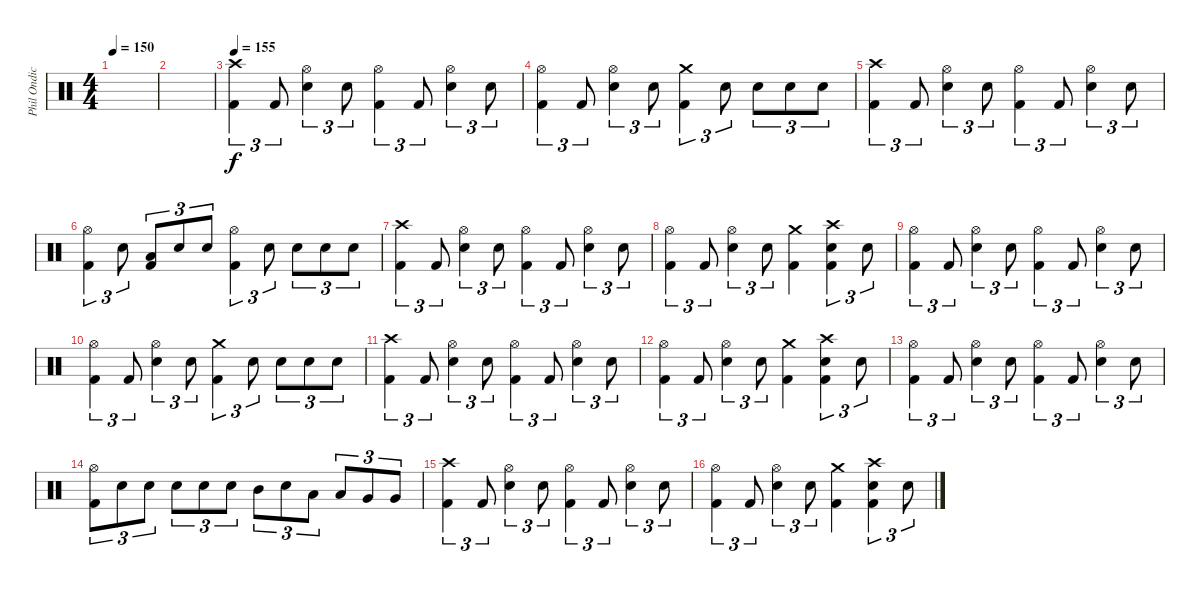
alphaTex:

\track ("Phil Ondich Drums" "Phil Ondic") {instrument percussion}
\staff {score}
\articulation defaults
\ts (4 4)
\tempo 150
\clef neutral
\ks c
|
|
\tempo 155
("Crash high (hit)" "Kick (hit) 2").4{tu (3 2)} "Kick (hit) 2".8{tu (3 2)} ("Hi-Hat (open)" "Snare (hit) 2").4{tu (3 2)} "Snare (hit) 2".8{tu (3 2)} ("Hi-Hat (open)" "Kick (hit) 2").4{tu (3 2)} "Kick (hit) 2".8{tu (3 2)} ("Hi-Hat (open)" "Snare (hit) 2").4{tu (3 2)} "Snare (hit) 2".8{tu (3 2)} |
("Hi-Hat (open)" "Kick (hit) 2").4{tu (3 2)} "Kick (hit) 2".8{tu (3 2)} ("Hi-Hat (open)" "Snare (hit) 2").4{tu (3 2)} "Snare (hit) 2".8{tu (3 2)} ("Crash medium (hit)" "Kick (hit) 2").4{tu (3 2)} "Snare (hit) 2".8{tu (3 2)} "Snare (hit) 2".8{tu (3 2)} "Snare (hit) 2".8{tu (3 2)} "Snare (hit) 2".8{tu (3 2)} |
("Crash high (hit)" "Kick (hit) 2").4{tu (3 2)} "Kick (hit) 2".8{tu (3 2)} ("Hi-Hat (open)" "Snare (hit) 2").4{tu (3 2)} "Snare (hit) 2".8{tu (3 2)} ("Hi-Hat (open)" "Kick (hit) 2").4{tu (3 2)} "Kick (hit) 2".8{tu (3 2)} ("Hi-Hat (open)" "Snare (hit) 2").4{tu (3 2)} "Snare (hit) 2".8{tu (3 2)} |
("Hi-Hat (open)" "Kick (hit) 2").4{tu (3 2)} "Snare (hit) 2".8{tu (3 2)} ("Low Tom (hit)" "Kick (hit) 2").8{tu (3 2)} "Snare (hit) 2".8{tu (3 2)} "Snare (hit) 2".8{tu (3 2)} ("Hi-Hat (open)" "Kick (hit) 2").4{tu (3 2)} "Snare (hit) 2".8{tu (3 2)} "Snare (hit) 2".8{tu (3 2)} "Snare (hit) 2".8{tu (3 2)} "Snare (hit) 2".8{tu (3 2)} |
("Crash high (hit)" "Kick (hit) 2").4{tu (3 2)} "Kick (hit) 2".8{tu (3 2)} ("Hi-Hat (open)" "Snare (hit) 2").4{tu (3 2)} "Snare (hit) 2".8{tu (3 2)} ("Hi-Hat (open)" "Kick (hit) 2").4{tu (3 2)} "Kick (hit) 2".8{tu (3 2)} ("Hi-Hat (open)" "Snare (hit) 2").4{tu (3 2)} "Snare (hit) 2".8{tu (3 2)} |
("Hi-Hat (open)" "Kick (hit) 2").4{tu (3 2)} "Kick (hit) 2".8{tu (3 2)} ("Hi-Hat (open)" "Snare (hit) 2").4{tu (3 2)} "Snare (hit) 2".8{tu (3 2)} ("Crash medium (hit)" "Kick (hit) 2").4 ("Crash high (hit)" "Snare (hit) 2" "Kick (hit) 2").4{tu (3 2)} "Snare (hit) 2".8{tu (3 2)} |
("Hi-Hat (open)" "Kick (hit) 2").4{tu (3 2)} "Kick (hit) 2".8{tu (3 2)} ("Hi-Hat (open)" "Snare (hit) 2").4{tu (3 2)} "Snare (hit) 2".8{tu (3 2)} ("Hi-Hat (open)" "Kick (hit) 2").4{tu (3 2)} "Kick (hit) 2".8{tu (3 2)} ("Hi-Hat (open)" "Snare (hit) 2").4{tu (3 2)} "Snare (hit) 2".8{tu (3 2)} |
("Hi-Hat (open)" "Kick (hit) 2").4{tu (3 2)} "Kick (hit) 2".8{tu (3 2)} ("Hi-Hat (open)" "Snare (hit) 2").4{tu (3 2)} "Snare (hit) 2".8{tu (3 2)} ("Crash medium (hit)" "Kick (hit) 2").4{tu (3 2)} "Snare (hit) 2".8{tu (3 2)} "Snare (hit) 2".8{tu (3 2)} "Snare (hit) 2".8{tu (3 2)} "Snare (hit) 2".8{tu (3 2)} |
("Crash high (hit)" "Kick (hit) 2").4{tu (3 2)} "Kick (hit) 2".8{tu (3 2)} ("Hi-Hat (open)" "Snare (hit) 2").4{tu (3 2)} "Snare (hit) 2".8{tu (3 2)} ("Hi-Hat (open)" "Kick (hit) 2").4{tu (3 2)} "Kick (hit) 2".8{tu (3 2)} ("Hi-Hat (open)" "Snare (hit) 2").4{tu (3 2)} "Snare (hit) 2".8{tu (3 2)} |
("Hi-Hat (open)" "Kick (hit) 2").4{tu (3 2)} "Kick (hit) 2".8{tu (3 2)} ("Hi-Hat (open)" "Snare (hit) 2").4{tu (3 2)} "Snare (hit) 2".8{tu (3 2)} ("Crash medium (hit)" "Kick (hit) 2").4 ("Crash high (hit)" "Snare (hit) 2" "Kick (hit) 2").4{tu (3 2)} "Snare (hit) 2".8{tu (3 2)} |
("Hi-Hat (open)" "Kick (hit) 2").4{tu (3 2)} "Kick (hit) 2".8{tu (3 2)} ("Hi-Hat (open)" "Snare (hit) 2").4{tu (3 2)} "Snare (hit) 2".8{tu (3 2)} ("Hi-Hat (open)" "Kick (hit) 2").4{tu (3 2)} "Kick (hit) 2".8{tu (3 2)} ("Hi-Hat (open)" "Snare (hit) 2").4{tu (3 2)} "Snare (hit) 2".8{tu (3 2)} |
("Hi-Hat (open)" "Kick (hit) 2").8{tu (3 2)} "Snare (hit) 2".8{tu (3 2)} "Snare (hit) 2".8{tu (3 2)} "Snare (hit) 2".8{tu (3 2)} "Snare (hit) 2".8{tu (3 2)} "Snare (hit) 2".8{tu (3 2)} "Mid Tom (hit)".8{tu (3 2)} "Snare (hit) 2".8{tu (3 2)} "Low Tom (hit)".8{tu (3 2)} "Low Tom (hit)".8{tu (3 2)} "Very Low Tom (hit)".8{tu (3 2)} "Very Low Tom (hit)".8{tu (3 2)} |
("Crash high (hit)" "Kick (hit) 2").4{tu (3 2)} "Kick (hit) 2".8{tu (3 2)} ("Hi-Hat (open)" "Snare (hit) 2").4{tu (3 2)} "Snare (hit) 2".8{tu (3 2)} ("Hi-Hat (open)" "Kick (hit) 2").4{tu (3 2)} "Kick (hit) 2".8{tu (3 2)} ("Hi-Hat (open)" "Snare (hit) 2").4{tu (3 2)} "Snare (hit) 2".8{tu (3 2)} |
("Hi-Hat (open)" "Kick (hit) 2").4{tu (3 2)} "Kick (hit) 2".8{tu (3 2)} ("Hi-Hat (open)" "Snare (hit) 2").4{tu (3 2)} "Snare (hit) 2".8{tu (3 2)} ("Crash medium (hit)" "Kick (hit) 2").4 ("Crash high (hit)" "Snare (hit) 2" "Kick (hit) 2").4{tu (3 2)} "Snare (hit) 2".8{tu (3 2)}
